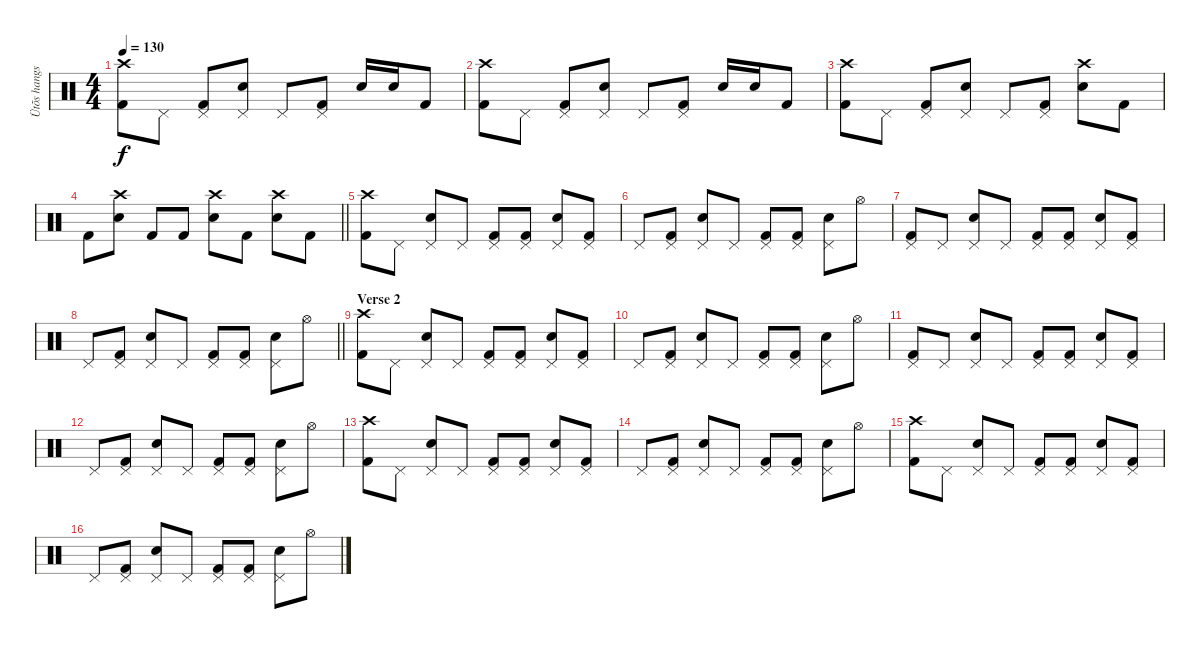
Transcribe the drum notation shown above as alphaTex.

\track ("Ütõs hangszer" "Ütõs hangs") {instrument percussion}
\staff {score}
\articulation defaults
\ts (4 4)
\tempo 130
\clef neutral
\ks c
("Crash high (hit)" "Kick (hit) 2").8{dy f} "Pedal Hi-Hat (hit)".8 ("Pedal Hi-Hat (hit)" "Kick (hit) 2").8 ("Pedal Hi-Hat (hit)" "Snare (hit) 2").8 "Pedal Hi-Hat (hit)".8 ("Pedal Hi-Hat (hit)" "Kick (hit) 2").8 "Snare (hit) 2".16 "Snare (hit) 2".16 "Kick (hit) 2".8 |
("Crash high (hit)" "Kick (hit) 2").8 "Pedal Hi-Hat (hit)".8 ("Pedal Hi-Hat (hit)" "Kick (hit) 2").8 ("Pedal Hi-Hat (hit)" "Snare (hit) 2").8 "Pedal Hi-Hat (hit)".8 ("Pedal Hi-Hat (hit)" "Kick (hit) 2").8 "Snare (hit) 2".16 "Snare (hit) 2".16 "Kick (hit) 2".8 |
("Crash high (hit)" "Kick (hit) 2").8 "Pedal Hi-Hat (hit)".8 ("Pedal Hi-Hat (hit)" "Kick (hit) 2").8 ("Pedal Hi-Hat (hit)" "Snare (hit) 2").8 "Pedal Hi-Hat (hit)".8 ("Pedal Hi-Hat (hit)" "Kick (hit) 2").8 ("Crash high (hit)" "Snare (hit) 2").8 "Kick (hit) 2".8 |
\barLineRight lightlight "Kick (hit) 2".8
("Crash high (hit)" "Snare (hit) 2").8 "Kick (hit) 2".8 "Kick (hit) 2".8 ("Crash high (hit)" "Snare (hit) 2").8 "Kick (hit) 2".8 ("Crash high (hit)" "Snare (hit) 2").8 "Kick (hit) 2".8 |
("Crash high (hit)" "Kick (hit) 2").8 "Pedal Hi-Hat (hit)".8 ("Pedal Hi-Hat (hit)" "Snare (hit) 2").8 "Pedal Hi-Hat (hit)".8 ("Pedal Hi-Hat (hit)" "Kick (hit) 2").8 ("Pedal Hi-Hat (hit)" "Kick (hit) 2").8 ("Pedal Hi-Hat (hit)" "Snare (hit) 2").8 ("Pedal Hi-Hat (hit)" "Kick (hit) 2").8 |
"Pedal Hi-Hat (hit)".8 ("Pedal Hi-Hat (hit)" "Kick (hit) 2").8 ("Pedal Hi-Hat (hit)" "Snare (hit) 2").8 "Pedal Hi-Hat (hit)".8 ("Pedal Hi-Hat (hit)" "Kick (hit) 2").8 ("Pedal Hi-Hat (hit)" "Kick (hit) 2").8 ("Pedal Hi-Hat (hit)" "Snare (hit) 2").8 "Hi-Hat (open)".8 |
("Pedal Hi-Hat (hit)" "Kick (hit) 2").8 "Pedal Hi-Hat (hit)".8 ("Pedal Hi-Hat (hit)" "Snare (hit) 2").8 "Pedal Hi-Hat (hit)".8 ("Pedal Hi-Hat (hit)" "Kick (hit) 2").8 ("Pedal Hi-Hat (hit)" "Kick (hit) 2").8 ("Pedal Hi-Hat (hit)" "Snare (hit) 2").8 ("Pedal Hi-Hat (hit)" "Kick (hit) 2").8 |
\barLineRight lightlight "Pedal Hi-Hat (hit)".8
("Pedal Hi-Hat (hit)" "Kick (hit) 2").8 ("Pedal Hi-Hat (hit)" "Snare (hit) 2").8 "Pedal Hi-Hat (hit)".8 ("Pedal Hi-Hat (hit)" "Kick (hit) 2").8 ("Pedal Hi-Hat (hit)" "Kick (hit) 2").8 ("Pedal Hi-Hat (hit)" "Snare (hit) 2").8 "Hi-Hat (open)".8 |
\section ("" "Verse 2")
("Crash high (hit)" "Kick (hit) 2").8 "Pedal Hi-Hat (hit)".8 ("Pedal Hi-Hat (hit)" "Snare (hit) 2").8 "Pedal Hi-Hat (hit)".8 ("Pedal Hi-Hat (hit)" "Kick (hit) 2").8 ("Pedal Hi-Hat (hit)" "Kick (hit) 2").8 ("Pedal Hi-Hat (hit)" "Snare (hit) 2").8 ("Pedal Hi-Hat (hit)" "Kick (hit) 2").8 |
"Pedal Hi-Hat (hit)".8 ("Pedal Hi-Hat (hit)" "Kick (hit) 2").8 ("Pedal Hi-Hat (hit)" "Snare (hit) 2").8 "Pedal Hi-Hat (hit)".8 ("Pedal Hi-Hat (hit)" "Kick (hit) 2").8 ("Pedal Hi-Hat (hit)" "Kick (hit) 2").8 ("Pedal Hi-Hat (hit)" "Snare (hit) 2").8 "Hi-Hat (open)".8 |
("Pedal Hi-Hat (hit)" "Kick (hit) 2").8 "Pedal Hi-Hat (hit)".8 ("Pedal Hi-Hat (hit)" "Snare (hit) 2").8 "Pedal Hi-Hat (hit)".8 ("Pedal Hi-Hat (hit)" "Kick (hit) 2").8 ("Pedal Hi-Hat (hit)" "Kick (hit) 2").8 ("Pedal Hi-Hat (hit)" "Snare (hit) 2").8 ("Pedal Hi-Hat (hit)" "Kick (hit) 2").8 |
"Pedal Hi-Hat (hit)".8 ("Pedal Hi-Hat (hit)" "Kick (hit) 2").8 ("Pedal Hi-Hat (hit)" "Snare (hit) 2").8 "Pedal Hi-Hat (hit)".8 ("Pedal Hi-Hat (hit)" "Kick (hit) 2").8 ("Pedal Hi-Hat (hit)" "Kick (hit) 2").8 ("Pedal Hi-Hat (hit)" "Snare (hit) 2").8 "Hi-Hat (open)".8 |
("Crash high (hit)" "Kick (hit) 2").8 "Pedal Hi-Hat (hit)".8 ("Pedal Hi-Hat (hit)" "Snare (hit) 2").8 "Pedal Hi-Hat (hit)".8 ("Pedal Hi-Hat (hit)" "Kick (hit) 2").8 ("Pedal Hi-Hat (hit)" "Kick (hit) 2").8 ("Pedal Hi-Hat (hit)" "Snare (hit) 2").8 ("Pedal Hi-Hat (hit)" "Kick (hit) 2").8 |
"Pedal Hi-Hat (hit)".8 ("Pedal Hi-Hat (hit)" "Kick (hit) 2").8 ("Pedal Hi-Hat (hit)" "Snare (hit) 2").8 "Pedal Hi-Hat (hit)".8 ("Pedal Hi-Hat (hit)" "Kick (hit) 2").8 ("Pedal Hi-Hat (hit)" "Kick (hit) 2").8 ("Pedal Hi-Hat (hit)" "Snare (hit) 2").8 "Hi-Hat (open)".8 |
("Crash high (hit)" "Kick (hit) 2").8 "Pedal Hi-Hat (hit)".8 ("Pedal Hi-Hat (hit)" "Snare (hit) 2").8 "Pedal Hi-Hat (hit)".8 ("Pedal Hi-Hat (hit)" "Kick (hit) 2").8 ("Pedal Hi-Hat (hit)" "Kick (hit) 2").8 ("Pedal Hi-Hat (hit)" "Snare (hit) 2").8 ("Pedal Hi-Hat (hit)" "Kick (hit) 2").8 |
"Pedal Hi-Hat (hit)".8 ("Pedal Hi-Hat (hit)" "Kick (hit) 2").8 ("Pedal Hi-Hat (hit)" "Snare (hit) 2").8 "Pedal Hi-Hat (hit)".8 ("Pedal Hi-Hat (hit)" "Kick (hit) 2").8 ("Pedal Hi-Hat (hit)" "Kick (hit) 2").8 ("Pedal Hi-Hat (hit)" "Snare (hit) 2").8 "Hi-Hat (open)".8
